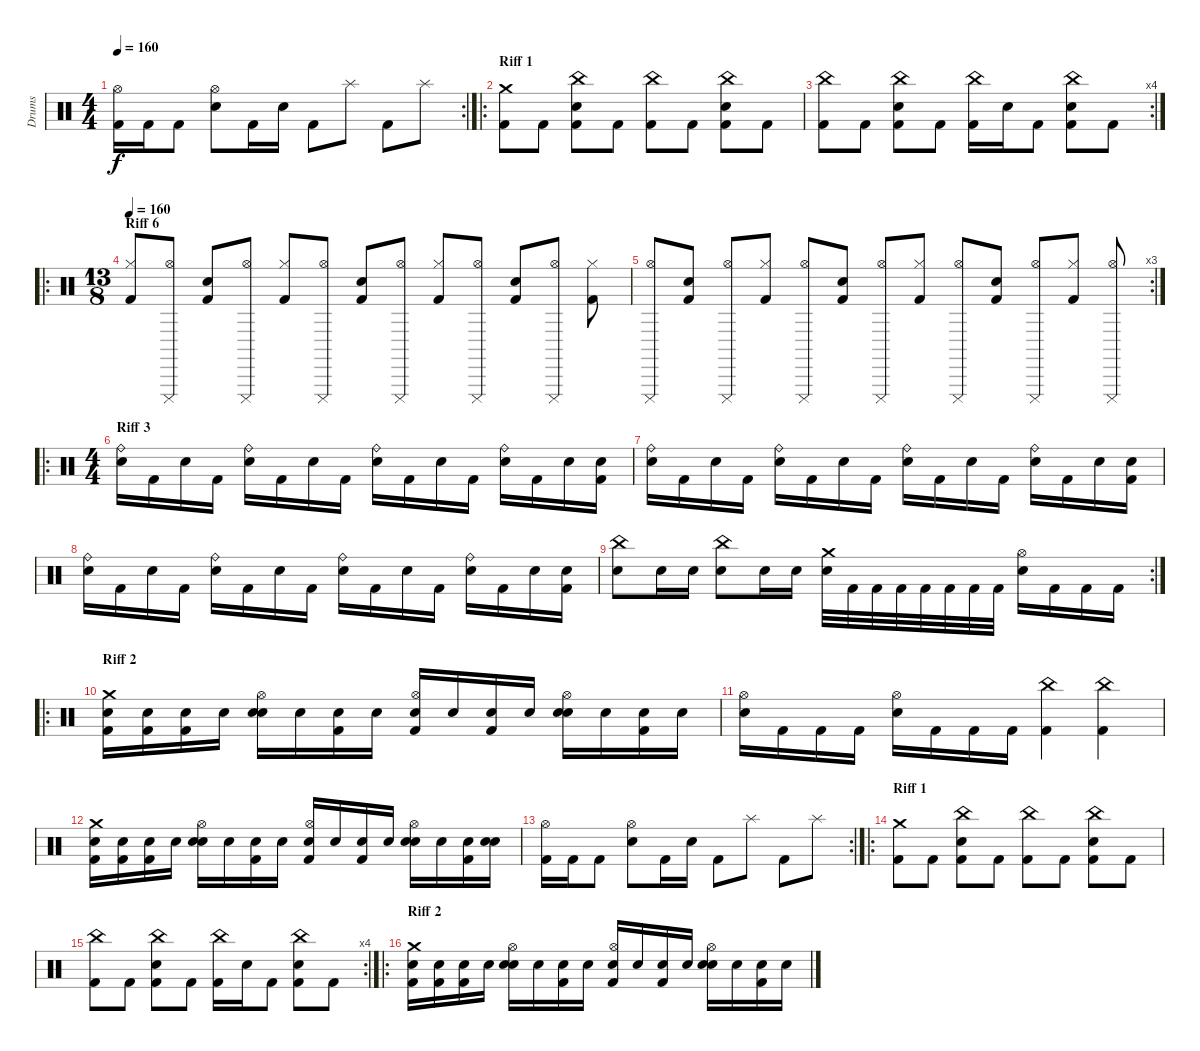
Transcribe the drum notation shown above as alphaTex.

\track ("Drums" "Drums") {instrument percussion}
\staff {score}
\articulation defaults
\rc 2
\ts (4 4)
\tempo 160
\clef neutral
\ks c
("Kick (hit) 2" "Hi-Hat (open)").16{dy f} "Kick (hit) 2".16 "Kick (hit) 2".8 ("Snare (hit) 2" "Hi-Hat (open)").8 "Kick (hit) 2".16 "Snare (hit) 2".16 "Kick (hit) 2".8 "Splash (hit)".8 "Kick (hit) 2".8 "Splash (hit)".8 |
\ro
\section ("" "Riff 1")
("Kick (hit) 2" "Crash medium (hit)").8 "Kick (hit) 2".8 ("Kick (hit) 2" "Snare (hit) 2" "China (hit)").8 "Kick (hit) 2".8 ("Kick (hit) 2" "China (hit)").8 "Kick (hit) 2".8 ("Kick (hit) 2" "Snare (hit) 2" "China (hit)").8 "Kick (hit) 2".8 |
\rc 4
("Kick (hit) 2" "China (hit)").8 "Kick (hit) 2".8 ("Kick (hit) 2" "Snare (hit) 2" "China (hit)").8 "Kick (hit) 2".8 ("Kick (hit) 2" "China (hit)").16 "Snare (hit) 2".16 "Kick (hit) 2".8 ("Kick (hit) 2" "Snare (hit) 2" "China (hit)").8 "Kick (hit) 2".8 |
\ro
\ts (13 8)
\section ("" "Riff 6")
\tempo 160
("Kick (hit) 2" "Hi-Hat (closed)").8 ("Cuica (mute)" "Hi-Hat (open)").8 ("Kick (hit) 2" "Electric Snare (hit)").8 ("Cuica (mute)" "Hi-Hat (open)").8 ("Kick (hit) 2" "Hi-Hat (closed)").8 ("Cuica (mute)" "Hi-Hat (open)").8 ("Kick (hit) 2" "Electric Snare (hit)").8 ("Cuica (mute)" "Hi-Hat (open)").8 ("Kick (hit) 2" "Hi-Hat (closed)").8 ("Cuica (mute)" "Hi-Hat (open)").8 ("Kick (hit) 2" "Electric Snare (hit)").8 ("Cuica (mute)" "Hi-Hat (open)").8 ("Kick (hit) 2" "Hi-Hat (closed)").8 |
\rc 3
("Cuica (mute)" "Hi-Hat (open)").8 ("Kick (hit) 2" "Electric Snare (hit)").8 ("Cuica (mute)" "Hi-Hat (open)").8 ("Kick (hit) 2" "Hi-Hat (closed)").8 ("Cuica (mute)" "Hi-Hat (open)").8 ("Kick (hit) 2" "Electric Snare (hit)").8 ("Cuica (mute)" "Hi-Hat (open)").8 ("Kick (hit) 2" "Hi-Hat (closed)").8 ("Cuica (mute)" "Hi-Hat (open)").8 ("Kick (hit) 2" "Electric Snare (hit)").8 ("Cuica (mute)" "Hi-Hat (open)").8 ("Kick (hit) 2" "Hi-Hat (closed)").8 ("Cuica (mute)" "Hi-Hat (open)").8 |
\ro
\ts (4 4)
\section ("" "Riff 3")
("Ride (bell)" "Snare (hit) 2").16 "Kick (hit) 2".16 "Snare (hit) 2".16 "Kick (hit) 2".16 ("Ride (bell)" "Snare (hit) 2").16 "Kick (hit) 2".16 "Snare (hit) 2".16 "Kick (hit) 2".16 ("Ride (bell)" "Snare (hit) 2").16 "Kick (hit) 2".16 "Snare (hit) 2".16 "Kick (hit) 2".16 ("Ride (bell)" "Snare (hit) 2").16 "Kick (hit) 2".16 "Snare (hit) 2".16 ("Kick (hit) 2" "Snare (hit) 2").16 |
("Ride (bell)" "Snare (hit) 2").16 "Kick (hit) 2".16 "Snare (hit) 2".16 "Kick (hit) 2".16 ("Ride (bell)" "Snare (hit) 2").16 "Kick (hit) 2".16 "Snare (hit) 2".16 "Kick (hit) 2".16 ("Ride (bell)" "Snare (hit) 2").16 "Kick (hit) 2".16 "Snare (hit) 2".16 "Kick (hit) 2".16 ("Ride (bell)" "Snare (hit) 2").16 "Kick (hit) 2".16 "Snare (hit) 2".16 ("Kick (hit) 2" "Snare (hit) 2").16 |
("Ride (bell)" "Snare (hit) 2").16 "Kick (hit) 2".16 "Snare (hit) 2".16 "Kick (hit) 2".16 ("Ride (bell)" "Snare (hit) 2").16 "Kick (hit) 2".16 "Snare (hit) 2".16 "Kick (hit) 2".16 ("Ride (bell)" "Snare (hit) 2").16 "Kick (hit) 2".16 "Snare (hit) 2".16 "Kick (hit) 2".16 ("Ride (bell)" "Snare (hit) 2").16 "Kick (hit) 2".16 "Snare (hit) 2".16 ("Kick (hit) 2" "Snare (hit) 2").16 |
\rc 2
("China (hit)" "Snare (hit) 2").8 "Snare (hit) 2".16 "Snare (hit) 2".16 ("China (hit)" "Snare (hit) 2").8 "Snare (hit) 2".16 "Snare (hit) 2".16 ("Crash medium (hit)" "Snare (hit) 2").32 "Kick (hit) 2".32 "Kick (hit) 2".32 "Kick (hit) 2".32 "Kick (hit) 2".32 "Kick (hit) 2".32 "Kick (hit) 2".32 "Kick (hit) 2".32 ("Hi-Hat (open)" "Snare (hit) 2").16 "Kick (hit) 2".16 "Kick (hit) 2".16 "Kick (hit) 2".16 |
\ro
\section ("" "Riff 2")
("Snare (hit)" "Kick (hit) 2" "Crash medium (hit)").16 ("Snare (hit)" "Kick (hit) 2").16 ("Snare (hit)" "Kick (hit) 2").16 "Snare (hit)".16 ("Snare (hit)" "Snare (hit) 2" "Hi-Hat (open)").16 "Snare (hit)".16 ("Snare (hit)" "Kick (hit) 2").16 "Snare (hit)".16 ("Snare (hit)" "Kick (hit) 2" "Hi-Hat (open)").16 "Snare (hit)".16 ("Snare (hit)" "Kick (hit) 2").16 "Snare (hit)".16 ("Snare (hit)" "Snare (hit) 2" "Hi-Hat (open)").16 "Snare (hit)".16 ("Snare (hit)" "Kick (hit) 2").16 "Snare (hit)".16 |
("Snare (hit) 2" "Hi-Hat (open)").16 "Kick (hit) 2".16 "Kick (hit) 2".16 "Kick (hit) 2".16 ("Snare (hit) 2" "Hi-Hat (open)").16 "Kick (hit) 2".16 "Kick (hit) 2".16 "Kick (hit) 2".16 ("Kick (hit) 2" "China (hit)").4 ("Kick (hit) 2" "China (hit)").4 |
("Snare (hit)" "Kick (hit) 2" "Crash medium (hit)").16 ("Snare (hit)" "Kick (hit) 2").16 ("Snare (hit)" "Kick (hit) 2").16 "Snare (hit)".16 ("Snare (hit)" "Snare (hit) 2" "Hi-Hat (open)").16 "Snare (hit)".16 ("Snare (hit)" "Kick (hit) 2").16 "Snare (hit)".16 ("Snare (hit)" "Kick (hit) 2" "Hi-Hat (open)").16 "Snare (hit)".16 ("Snare (hit)" "Kick (hit) 2").16 "Snare (hit)".16 ("Snare (hit)" "Snare (hit) 2" "Hi-Hat (open)").16 "Snare (hit)".16 ("Snare (hit)" "Kick (hit) 2").16 ("Snare (hit)" "Snare (hit) 2").16 |
\rc 2
("Kick (hit) 2" "Hi-Hat (open)").16 "Kick (hit) 2".16 "Kick (hit) 2".8 ("Snare (hit) 2" "Hi-Hat (open)").8 "Kick (hit) 2".16 "Snare (hit) 2".16 "Kick (hit) 2".8 "Splash (hit)".8 "Kick (hit) 2".8 "Splash (hit)".8 |
\ro
\section ("" "Riff 1")
("Kick (hit) 2" "Crash medium (hit)").8 "Kick (hit) 2".8 ("Kick (hit) 2" "Snare (hit) 2" "China (hit)").8 "Kick (hit) 2".8 ("Kick (hit) 2" "China (hit)").8 "Kick (hit) 2".8 ("Kick (hit) 2" "Snare (hit) 2" "China (hit)").8 "Kick (hit) 2".8 |
\rc 4
("Kick (hit) 2" "China (hit)").8 "Kick (hit) 2".8 ("Kick (hit) 2" "Snare (hit) 2" "China (hit)").8 "Kick (hit) 2".8 ("Kick (hit) 2" "China (hit)").16 "Snare (hit) 2".16 "Kick (hit) 2".8 ("Kick (hit) 2" "Snare (hit) 2" "China (hit)").8 "Kick (hit) 2".8 |
\ro
\section ("" "Riff 2")
("Snare (hit)" "Kick (hit) 2" "Crash medium (hit)").16 ("Snare (hit)" "Kick (hit) 2").16 ("Snare (hit)" "Kick (hit) 2").16 "Snare (hit)".16 ("Snare (hit)" "Snare (hit) 2" "Hi-Hat (open)").16 "Snare (hit)".16 ("Snare (hit)" "Kick (hit) 2").16 "Snare (hit)".16 ("Snare (hit)" "Kick (hit) 2" "Hi-Hat (open)").16 "Snare (hit)".16 ("Snare (hit)" "Kick (hit) 2").16 "Snare (hit)".16 ("Snare (hit)" "Snare (hit) 2" "Hi-Hat (open)").16 "Snare (hit)".16 ("Snare (hit)" "Kick (hit) 2").16 "Snare (hit)".16
